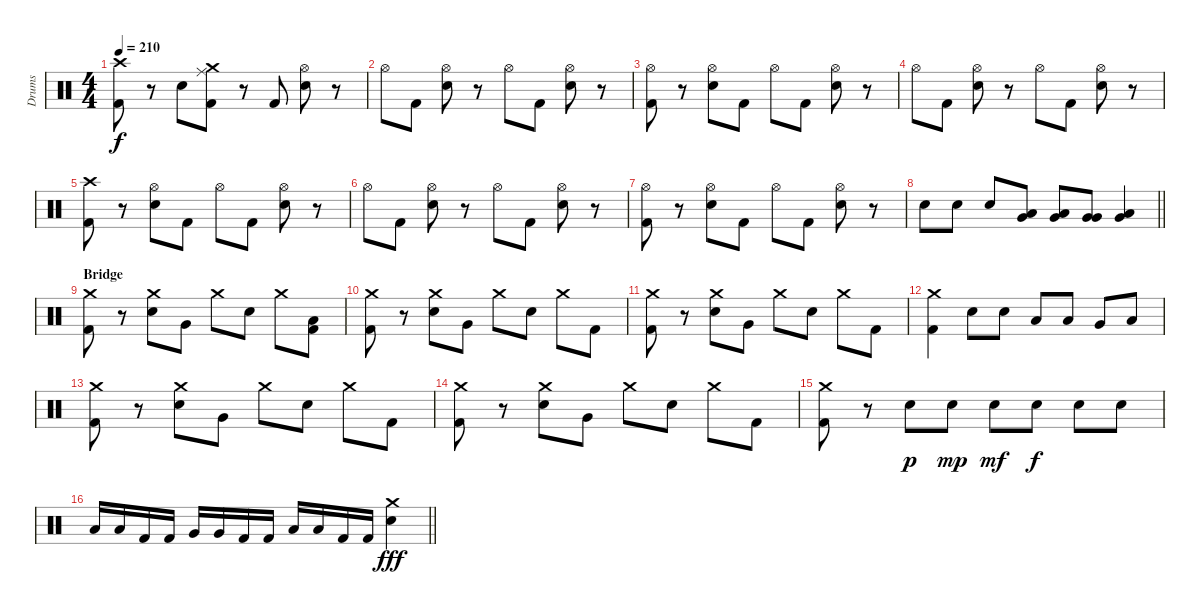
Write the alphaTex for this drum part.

\track ("Drums" "Drums") {instrument percussion}
\staff {score}
\articulation defaults
\ts (4 4)
\tempo 210
\clef neutral
\ks c
("Crash high (hit)" "Kick (hit) 2").8{dy f} r.8 "Electric Snare (hit)".8 ("Ride (middle)" "Crash medium (hit)" "Kick (hit) 2").8 r.8 "Kick (hit) 2".8 ("Hi-Hat (open)" "Electric Snare (hit)").8 r.8 |
"Hi-Hat (open)".8 "Kick (hit) 2".8 ("Hi-Hat (open)" "Electric Snare (hit)").8 r.8 "Hi-Hat (open)".8 "Kick (hit) 2".8 ("Hi-Hat (open)" "Electric Snare (hit)").8 r.8 |
("Hi-Hat (open)" "Kick (hit) 2").8 r.8 ("Hi-Hat (open)" "Electric Snare (hit)").8 "Kick (hit) 2".8 "Hi-Hat (open)".8 "Kick (hit) 2".8 ("Hi-Hat (open)" "Electric Snare (hit)").8 r.8 |
"Hi-Hat (open)".8 "Kick (hit) 2".8 ("Hi-Hat (open)" "Electric Snare (hit)").8 r.8 "Hi-Hat (open)".8 "Kick (hit) 2".8 ("Hi-Hat (open)" "Electric Snare (hit)").8 r.8 |
("Crash high (hit)" "Kick (hit) 2").8 r.8 ("Hi-Hat (open)" "Electric Snare (hit)").8 "Kick (hit) 2".8 "Hi-Hat (open)".8 "Kick (hit) 2".8 ("Hi-Hat (open)" "Electric Snare (hit)").8 r.8 |
"Hi-Hat (open)".8 "Kick (hit) 2".8 ("Hi-Hat (open)" "Electric Snare (hit)").8 r.8 "Hi-Hat (open)".8 "Kick (hit) 2".8 ("Hi-Hat (open)" "Electric Snare (hit)").8 r.8 |
("Hi-Hat (open)" "Kick (hit) 2").8 r.8 ("Hi-Hat (open)" "Electric Snare (hit)").8 "Kick (hit) 2".8 "Hi-Hat (open)".8 "Kick (hit) 2".8 ("Hi-Hat (open)" "Electric Snare (hit)").8 r.8 |
\barLineRight lightlight "Electric Snare (hit)".8 "Electric Snare (hit)".8 "Electric Snare (hit)".8
("Low Tom (hit)" "Very Low Tom (hit)").8 ("Low Tom (hit)" "Very Low Tom (hit)").8 ("Very Low Tom (hit)" "Very Low Tom (hit)").8 ("Low Floor Tom (hit)" "Very Low Tom (hit)").4 |
\section ("" "Bridge")
("Crash medium (hit)" "Kick (hit) 2").8 r.8 ("Crash medium (hit)" "Electric Snare (hit)").8 "Very Low Tom (hit)".8 "Crash medium (hit)".8 "Electric Snare (hit)".8 "Crash medium (hit)".8 ("Low Floor Tom (hit)" "Kick (hit) 2").8 |
("Crash medium (hit)" "Kick (hit) 2").8 r.8 ("Crash medium (hit)" "Electric Snare (hit)").8 "Very Low Tom (hit)".8 "Crash medium (hit)".8 "Electric Snare (hit)".8 "Crash medium (hit)".8 "Kick (hit) 2".8 |
("Crash medium (hit)" "Kick (hit) 2").8 r.8 ("Crash medium (hit)" "Electric Snare (hit)").8 "Very Low Tom (hit)".8 "Crash medium (hit)".8 "Electric Snare (hit)".8 "Crash medium (hit)".8 "Kick (hit) 2".8 |
("Crash medium (hit)" "Kick (hit) 2").4 "Electric Snare (hit)".8 "Electric Snare (hit)".8 "Low Tom (hit)".8 "Low Tom (hit)".8 "Very Low Tom (hit)".8 "Low Floor Tom (hit)".8 |
("Crash medium (hit)" "Kick (hit) 2").8 r.8 ("Crash medium (hit)" "Electric Snare (hit)").8 "Very Low Tom (hit)".8 "Crash medium (hit)".8 "Electric Snare (hit)".8 "Crash medium (hit)".8 "Kick (hit) 2".8 |
("Crash medium (hit)" "Kick (hit) 2").8 r.8 ("Crash medium (hit)" "Electric Snare (hit)").8 "Very Low Tom (hit)".8 "Crash medium (hit)".8 "Electric Snare (hit)".8 "Crash medium (hit)".8 "Kick (hit) 2".8 |
("Crash medium (hit)" "Kick (hit) 2").8 r.8 "Electric Snare (hit)".8{dy p} "Electric Snare (hit)".8{dy mp} "Electric Snare (hit)".8{dy mf} "Electric Snare (hit)".8{dy f} "Electric Snare (hit)".8 "Electric Snare (hit)".8 |
\barLineRight lightlight "Low Tom (hit)".16 "Low Tom (hit)".16 "Kick (hit) 2".16 "Kick (hit) 2".16 "Very Low Tom (hit)".16 "Very Low Tom (hit)".16 "Kick (hit) 2".16 "Kick (hit) 2".16 "Low Floor Tom (hit)".16 "Low Floor Tom (hit)".16 "Kick (hit) 2".16 "Kick (hit) 2".16
("Crash medium (hit)" "Electric Snare (hit)").4{dy fff}
